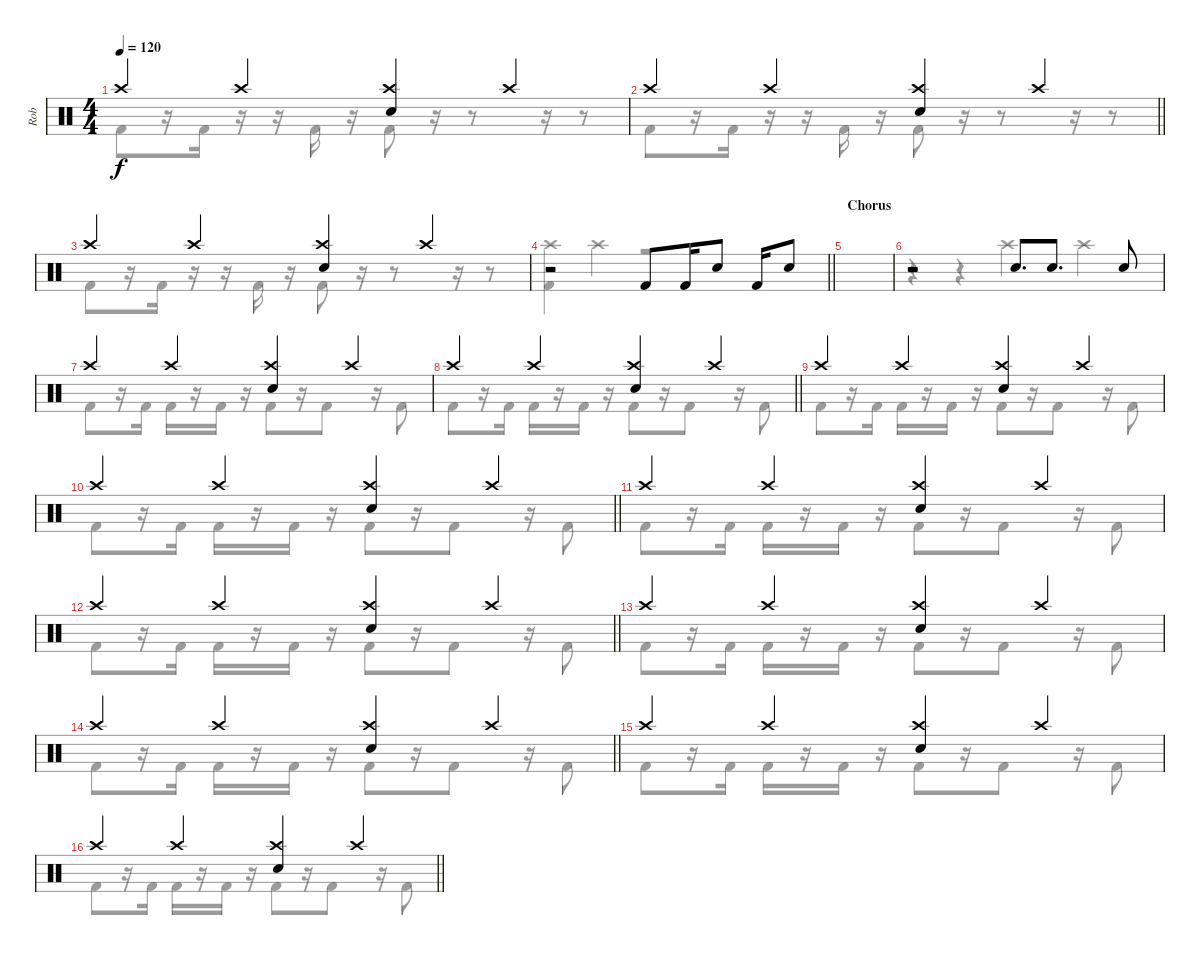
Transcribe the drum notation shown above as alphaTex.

\track ("Rob" "Rob") {instrument percussion}
\staff {score}
\articulation defaults
\voice
\ts (4 4)
\tempo 120
\clef neutral
\ks c "Crash high (hit)".4{dy f} "Crash high (hit)".4
("Crash high (hit)" "Snare (hit) 2").4 "Crash high (hit)".4 |
\barLineRight lightlight "Crash high (hit)".4 "Crash high (hit)".4
("Crash high (hit)" "Snare (hit) 2").4 "Crash high (hit)".4 |
"Crash high (hit)".4 "Crash high (hit)".4 ("Crash high (hit)" "Snare (hit) 2").4 "Crash high (hit)".4 |
\barLineRight lightlight
r.2 "Kick (hit) 2".8 "Kick (hit) 2".16 "Snare (hit) 2".8 "Kick (hit) 2".16 "Snare (hit) 2".8 |
\section ("" "Chorus")
|
r.2 "Snare (hit) 2".8{d} "Snare (hit) 2".8{d} "Snare (hit) 2".8 |
"Crash high (hit)".4 "Crash high (hit)".4 ("Crash high (hit)" "Snare (hit) 2").4 "Crash high (hit)".4 |
\barLineRight lightlight "Crash high (hit)".4 "Crash high (hit)".4
("Crash high (hit)" "Snare (hit) 2").4 "Crash high (hit)".4 |
"Crash high (hit)".4 "Crash high (hit)".4 ("Crash high (hit)" "Snare (hit) 2").4 "Crash high (hit)".4 |
\barLineRight lightlight "Crash high (hit)".4 "Crash high (hit)".4
("Crash high (hit)" "Snare (hit) 2").4 "Crash high (hit)".4 |
"Crash high (hit)".4 "Crash high (hit)".4 ("Crash high (hit)" "Snare (hit) 2").4 "Crash high (hit)".4 |
\barLineRight lightlight "Crash high (hit)".4 "Crash high (hit)".4
("Crash high (hit)" "Snare (hit) 2").4 "Crash high (hit)".4 |
"Crash high (hit)".4 "Crash high (hit)".4 ("Crash high (hit)" "Snare (hit) 2").4 "Crash high (hit)".4 |
\barLineRight lightlight "Crash high (hit)".4 "Crash high (hit)".4
("Crash high (hit)" "Snare (hit) 2").4 "Crash high (hit)".4 |
"Crash high (hit)".4 "Crash high (hit)".4 ("Crash high (hit)" "Snare (hit) 2").4 "Crash high (hit)".4 |
\barLineRight lightlight "Crash high (hit)".4 "Crash high (hit)".4
("Crash high (hit)" "Snare (hit) 2").4 "Crash high (hit)".4
\voice
\clef neutral
\ottava regular
\simile none
\ks c "Kick (hit) 2".8{dy f}
r.16 "Kick (hit) 2".16 r.16 r.16 "Kick (hit) 2".16 r.16 "Kick (hit) 2".8 r.16 r.8 r.16 r.8 |
\barLineRight lightlight "Kick (hit) 2".8
r.16 "Kick (hit) 2".16 r.16 r.16 "Kick (hit) 2".16 r.16 "Kick (hit) 2".8 r.16 r.8 r.16 r.8 |
"Kick (hit) 2".8 r.16 "Kick (hit) 2".16 r.16 r.16 "Kick (hit) 2".16 r.16 "Kick (hit) 2".8 r.16 r.8 r.16 r.8 |
\barLineRight lightlight
("Crash high (hit)" "Kick (hit) 2").4 "Crash high (hit)".4 r.2 |
|
r.4 r.4 "Crash high (hit)".4 "Crash high (hit)".4 |
"Kick (hit) 2".8 r.16 "Kick (hit) 2".16 "Kick (hit) 2".16 r.16 "Kick (hit) 2".16 r.16 "Kick (hit) 2".8 r.16 "Kick (hit) 2".8 r.16 "Kick (hit) 2".8 |
\barLineRight lightlight "Kick (hit) 2".8
r.16 "Kick (hit) 2".16 "Kick (hit) 2".16 r.16 "Kick (hit) 2".16 r.16 "Kick (hit) 2".8 r.16 "Kick (hit) 2".8 r.16 "Kick (hit) 2".8 |
"Kick (hit) 2".8 r.16 "Kick (hit) 2".16 "Kick (hit) 2".16 r.16 "Kick (hit) 2".16 r.16 "Kick (hit) 2".8 r.16 "Kick (hit) 2".8 r.16 "Kick (hit) 2".8 |
\barLineRight lightlight "Kick (hit) 2".8
r.16 "Kick (hit) 2".16 "Kick (hit) 2".16 r.16 "Kick (hit) 2".16 r.16 "Kick (hit) 2".8 r.16 "Kick (hit) 2".8 r.16 "Kick (hit) 2".8 |
"Kick (hit) 2".8 r.16 "Kick (hit) 2".16 "Kick (hit) 2".16 r.16 "Kick (hit) 2".16 r.16 "Kick (hit) 2".8 r.16 "Kick (hit) 2".8 r.16 "Kick (hit) 2".8 |
\barLineRight lightlight "Kick (hit) 2".8
r.16 "Kick (hit) 2".16 "Kick (hit) 2".16 r.16 "Kick (hit) 2".16 r.16 "Kick (hit) 2".8 r.16 "Kick (hit) 2".8 r.16 "Kick (hit) 2".8 |
"Kick (hit) 2".8 r.16 "Kick (hit) 2".16 "Kick (hit) 2".16 r.16 "Kick (hit) 2".16 r.16 "Kick (hit) 2".8 r.16 "Kick (hit) 2".8 r.16 "Kick (hit) 2".8 |
\barLineRight lightlight "Kick (hit) 2".8
r.16 "Kick (hit) 2".16 "Kick (hit) 2".16 r.16 "Kick (hit) 2".16 r.16 "Kick (hit) 2".8 r.16 "Kick (hit) 2".8 r.16 "Kick (hit) 2".8 |
"Kick (hit) 2".8 r.16 "Kick (hit) 2".16 "Kick (hit) 2".16 r.16 "Kick (hit) 2".16 r.16 "Kick (hit) 2".8 r.16 "Kick (hit) 2".8 r.16 "Kick (hit) 2".8 |
\barLineRight lightlight "Kick (hit) 2".8
r.16 "Kick (hit) 2".16 "Kick (hit) 2".16 r.16 "Kick (hit) 2".16 r.16 "Kick (hit) 2".8 r.16 "Kick (hit) 2".8 r.16 "Kick (hit) 2".8
